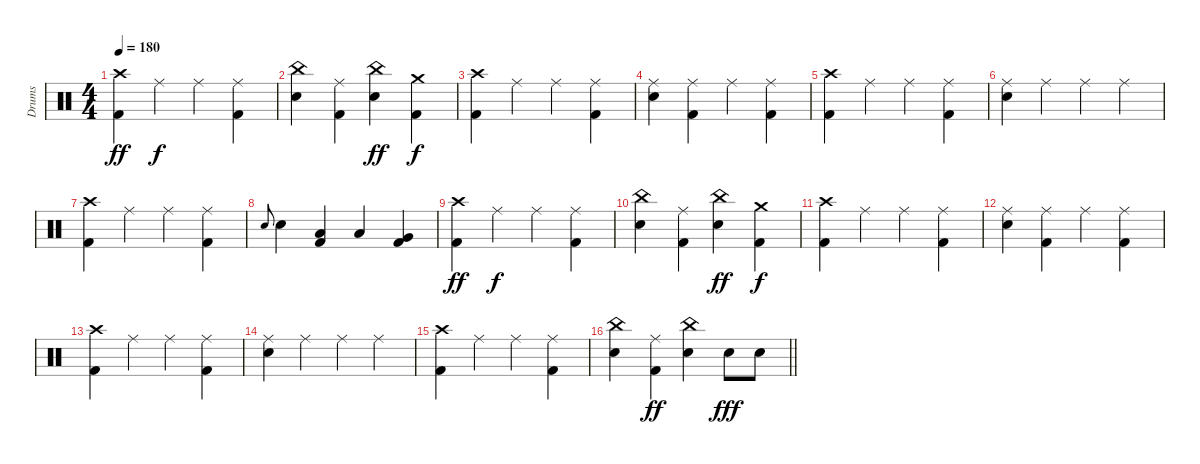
\track ("Drums" "Drums") {instrument percussion}
\staff {score}
\articulation defaults
\ts (4 4)
\section ("" "")
\tempo 180
\clef neutral
\ks c
("Crash high (hit)" "Kick (hit) 2").4{dy ff} "Ride (middle)".4{dy f} "Ride (middle)".4 ("Ride (middle)" "Kick (hit) 2").4 |
("China (hit)" "Electric Snare (hit)").4 ("Ride (middle)" "Kick (hit) 2").4 ("China (hit)" "Electric Snare (hit)").4{dy ff} ("Crash medium (hit)" "Kick (hit) 2").4{dy f} |
("Crash high (hit)" "Kick (hit) 2").4 "Ride (middle)".4 "Ride (middle)".4 ("Ride (middle)" "Kick (hit) 2").4 |
("Ride (middle)" "Electric Snare (hit)").4 ("Ride (middle)" "Kick (hit) 2").4 "Ride (middle)".4 ("Ride (middle)" "Kick (hit) 2").4 |
("Crash high (hit)" "Kick (hit) 2").4 "Ride (middle)".4 "Ride (middle)".4 ("Ride (middle)" "Kick (hit) 2").4 |
("Ride (middle)" "Electric Snare (hit)").4 "Ride (middle)".4 "Ride (middle)".4 "Ride (middle)".4 |
("Crash high (hit)" "Kick (hit) 2").4 "Ride (middle)".4 "Ride (middle)".4 ("Ride (middle)" "Kick (hit) 2").4 |
"Electric Snare (hit)".8{gr onbeat} "Electric Snare (hit)".4 ("Low Tom (hit)" "Kick (hit) 2").4 "Low Tom (hit)".4 ("Very Low Tom (hit)" "Kick (hit) 2").4 |
("Crash high (hit)" "Kick (hit) 2").4{dy ff} "Ride (middle)".4{dy f} "Ride (middle)".4 ("Ride (middle)" "Kick (hit) 2").4 |
("China (hit)" "Electric Snare (hit)").4 ("Ride (middle)" "Kick (hit) 2").4 ("China (hit)" "Electric Snare (hit)").4{dy ff} ("Crash medium (hit)" "Kick (hit) 2").4{dy f} |
("Crash high (hit)" "Kick (hit) 2").4 "Ride (middle)".4 "Ride (middle)".4 ("Ride (middle)" "Kick (hit) 2").4 |
("Ride (middle)" "Electric Snare (hit)").4 ("Ride (middle)" "Kick (hit) 2").4 "Ride (middle)".4 ("Ride (middle)" "Kick (hit) 2").4 |
("Crash high (hit)" "Kick (hit) 2").4 "Ride (middle)".4 "Ride (middle)".4 ("Ride (middle)" "Kick (hit) 2").4 |
("Ride (middle)" "Electric Snare (hit)").4 "Ride (middle)".4 "Ride (middle)".4 "Ride (middle)".4 |
("Crash high (hit)" "Kick (hit) 2").4 "Ride (middle)".4 "Ride (middle)".4 ("Ride (middle)" "Kick (hit) 2").4 |
\barLineRight lightlight
("China (hit)" "Electric Snare (hit)").4 ("Ride (middle)" "Kick (hit) 2").4{dy ff} ("China (hit)" "Electric Snare (hit)").4 "Electric Snare (hit)".8{dy fff} "Electric Snare (hit)".8
